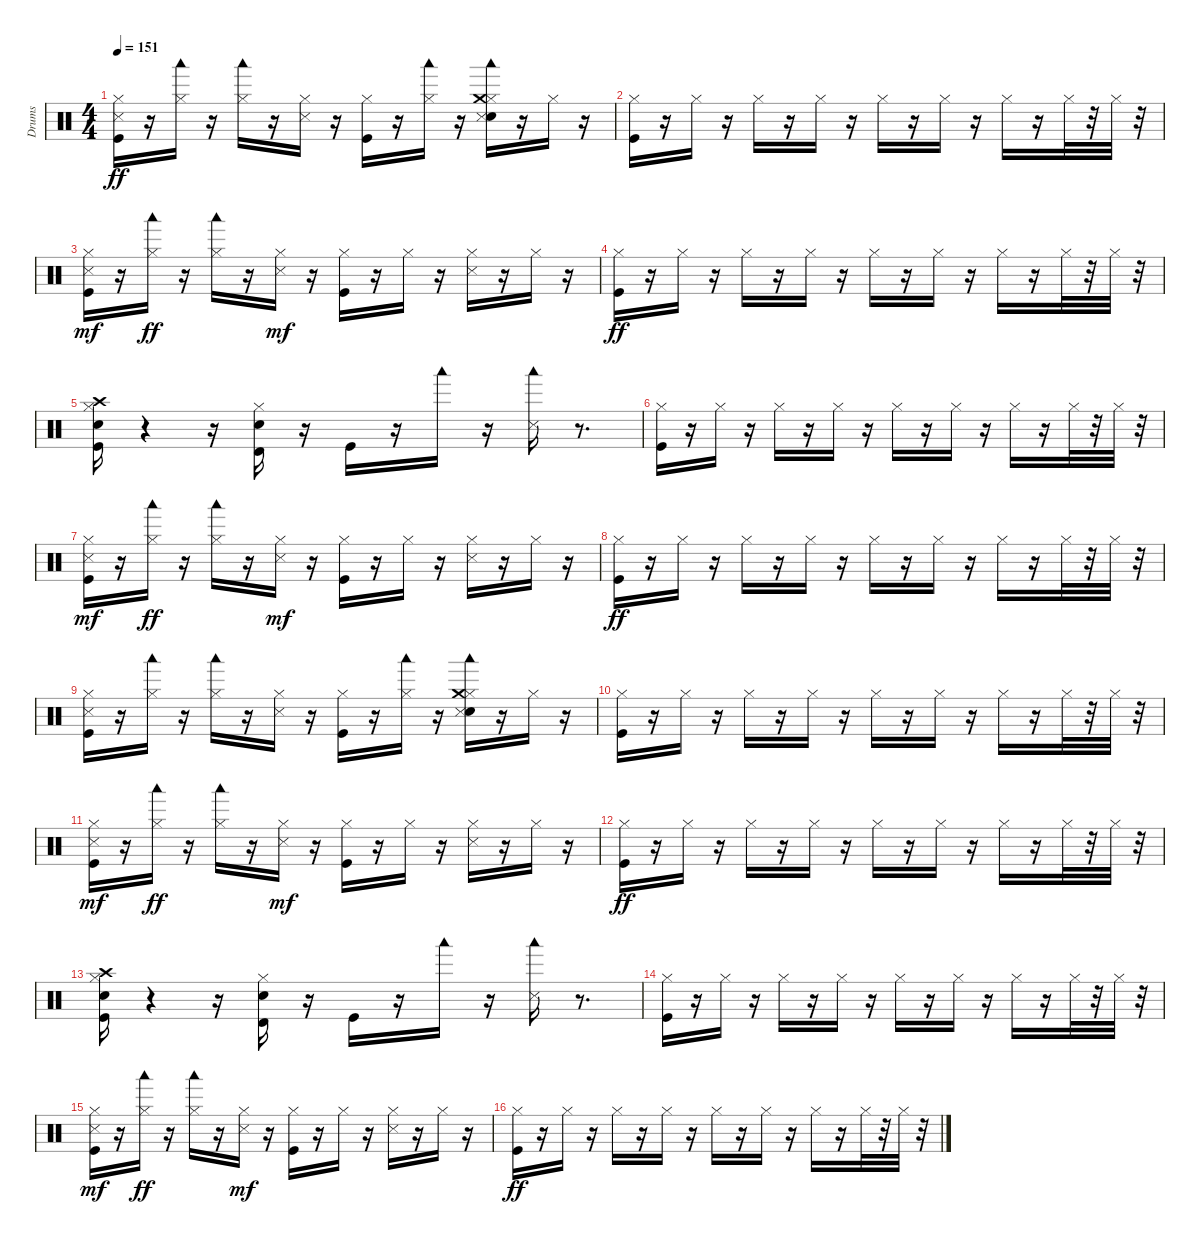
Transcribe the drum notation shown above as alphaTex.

\track ("Drums" "Drums") {instrument percussion}
\staff {score}
\articulation defaults
\ts (4 4)
\tempo 151
\clef neutral
\ks c
("Kick (hit)" "Snare (side stick) 3" "Hi-Hat (closed)").16{dy ff} r.16 ("Hi-Hat (closed)" "Woodblock low (hit)").16 r.16 ("Hi-Hat (closed)" "Woodblock low (hit)").16 r.16 ("Snare (side stick) 3" "Hi-Hat (closed)").16 r.16 ("Kick (hit)" "Hi-Hat (closed)").16 r.16 ("Hi-Hat (closed)" "Woodblock low (hit)").16 r.16 ("Snare (hit) 2" "Snare (side stick) 3" "Hi-Hat (closed)" "Crash medium (hit)" "Woodblock low (hit)").16 r.16 "Hi-Hat (closed)".16 r.16 |
("Kick (hit)" "Hi-Hat (closed)").16 r.16 "Hi-Hat (closed)".16 r.16 "Hi-Hat (closed)".16 r.16 "Hi-Hat (closed)".16 r.16 "Hi-Hat (closed)".16 r.16 "Hi-Hat (closed)".16 r.16 "Hi-Hat (closed)".16 r.16 "Hi-Hat (closed)".32 r.32 "Hi-Hat (closed)".32 r.32 |
("Kick (hit)" "Snare (side stick) 3" "Hi-Hat (closed)").16{dy mf} r.16 ("Hi-Hat (closed)" "Woodblock low (hit)").16{dy ff} r.16 ("Hi-Hat (closed)" "Woodblock low (hit)").16 r.16 ("Snare (side stick) 3" "Hi-Hat (closed)").16{dy mf} r.16 ("Kick (hit)" "Hi-Hat (closed)").16 r.16 "Hi-Hat (closed)".16 r.16 ("Snare (side stick) 3" "Hi-Hat (closed)").16 r.16 "Hi-Hat (closed)".16 r.16 |
("Kick (hit)" "Hi-Hat (closed)").16{dy ff} r.16 "Hi-Hat (closed)".16 r.16 "Hi-Hat (closed)".16 r.16 "Hi-Hat (closed)".16 r.16 "Hi-Hat (closed)".16 r.16 "Hi-Hat (closed)".16 r.16 "Hi-Hat (closed)".16 r.16 "Hi-Hat (closed)".32 r.32 "Hi-Hat (closed)".32 r.32 |
("Kick (hit)" "Snare (hit) 2" "Hi-Hat (closed)" "Crash high (hit)").16 r.4 r.16 ("Snare (hit) 2" "Hi-Hat (closed)" "Timbale high (hit)").16 r.16 "Kick (hit)".16 r.16 "Woodblock low (hit)".16 r.16 ("Snare (side stick) 3" "Woodblock low (hit)").16 r.8{d} |
("Kick (hit)" "Hi-Hat (closed)").16 r.16 "Hi-Hat (closed)".16 r.16 "Hi-Hat (closed)".16 r.16 "Hi-Hat (closed)".16 r.16 "Hi-Hat (closed)".16 r.16 "Hi-Hat (closed)".16 r.16 "Hi-Hat (closed)".16 r.16 "Hi-Hat (closed)".32 r.32 "Hi-Hat (closed)".32 r.32 |
("Kick (hit)" "Snare (side stick) 3" "Hi-Hat (closed)").16{dy mf} r.16 ("Hi-Hat (closed)" "Woodblock low (hit)").16{dy ff} r.16 ("Hi-Hat (closed)" "Woodblock low (hit)").16 r.16 ("Snare (side stick) 3" "Hi-Hat (closed)").16{dy mf} r.16 ("Kick (hit)" "Hi-Hat (closed)").16 r.16 "Hi-Hat (closed)".16 r.16 ("Snare (side stick) 3" "Hi-Hat (closed)").16 r.16 "Hi-Hat (closed)".16 r.16 |
("Kick (hit)" "Hi-Hat (closed)").16{dy ff} r.16 "Hi-Hat (closed)".16 r.16 "Hi-Hat (closed)".16 r.16 "Hi-Hat (closed)".16 r.16 "Hi-Hat (closed)".16 r.16 "Hi-Hat (closed)".16 r.16 "Hi-Hat (closed)".16 r.16 "Hi-Hat (closed)".32 r.32 "Hi-Hat (closed)".32 r.32 |
("Kick (hit)" "Snare (side stick) 3" "Hi-Hat (closed)").16 r.16 ("Hi-Hat (closed)" "Woodblock low (hit)").16 r.16 ("Hi-Hat (closed)" "Woodblock low (hit)").16 r.16 ("Snare (side stick) 3" "Hi-Hat (closed)").16 r.16 ("Kick (hit)" "Hi-Hat (closed)").16 r.16 ("Hi-Hat (closed)" "Woodblock low (hit)").16 r.16 ("Snare (hit) 2" "Snare (side stick) 3" "Hi-Hat (closed)" "Crash medium (hit)" "Woodblock low (hit)").16 r.16 "Hi-Hat (closed)".16 r.16 |
("Kick (hit)" "Hi-Hat (closed)").16 r.16 "Hi-Hat (closed)".16 r.16 "Hi-Hat (closed)".16 r.16 "Hi-Hat (closed)".16 r.16 "Hi-Hat (closed)".16 r.16 "Hi-Hat (closed)".16 r.16 "Hi-Hat (closed)".16 r.16 "Hi-Hat (closed)".32 r.32 "Hi-Hat (closed)".32 r.32 |
("Kick (hit)" "Snare (side stick) 3" "Hi-Hat (closed)").16{dy mf} r.16 ("Hi-Hat (closed)" "Woodblock low (hit)").16{dy ff} r.16 ("Hi-Hat (closed)" "Woodblock low (hit)").16 r.16 ("Snare (side stick) 3" "Hi-Hat (closed)").16{dy mf} r.16 ("Kick (hit)" "Hi-Hat (closed)").16 r.16 "Hi-Hat (closed)".16 r.16 ("Snare (side stick) 3" "Hi-Hat (closed)").16 r.16 "Hi-Hat (closed)".16 r.16 |
("Kick (hit)" "Hi-Hat (closed)").16{dy ff} r.16 "Hi-Hat (closed)".16 r.16 "Hi-Hat (closed)".16 r.16 "Hi-Hat (closed)".16 r.16 "Hi-Hat (closed)".16 r.16 "Hi-Hat (closed)".16 r.16 "Hi-Hat (closed)".16 r.16 "Hi-Hat (closed)".32 r.32 "Hi-Hat (closed)".32 r.32 |
("Kick (hit)" "Snare (hit) 2" "Hi-Hat (closed)" "Crash high (hit)").16 r.4 r.16 ("Snare (hit) 2" "Hi-Hat (closed)" "Timbale high (hit)").16 r.16 "Kick (hit)".16 r.16 "Woodblock low (hit)".16 r.16 ("Snare (side stick) 3" "Woodblock low (hit)").16 r.8{d} |
("Kick (hit)" "Hi-Hat (closed)").16 r.16 "Hi-Hat (closed)".16 r.16 "Hi-Hat (closed)".16 r.16 "Hi-Hat (closed)".16 r.16 "Hi-Hat (closed)".16 r.16 "Hi-Hat (closed)".16 r.16 "Hi-Hat (closed)".16 r.16 "Hi-Hat (closed)".32 r.32 "Hi-Hat (closed)".32 r.32 |
("Kick (hit)" "Snare (side stick) 3" "Hi-Hat (closed)").16{dy mf} r.16 ("Hi-Hat (closed)" "Woodblock low (hit)").16{dy ff} r.16 ("Hi-Hat (closed)" "Woodblock low (hit)").16 r.16 ("Snare (side stick) 3" "Hi-Hat (closed)").16{dy mf} r.16 ("Kick (hit)" "Hi-Hat (closed)").16 r.16 "Hi-Hat (closed)".16 r.16 ("Snare (side stick) 3" "Hi-Hat (closed)").16 r.16 "Hi-Hat (closed)".16 r.16 |
("Kick (hit)" "Hi-Hat (closed)").16{dy ff} r.16 "Hi-Hat (closed)".16 r.16 "Hi-Hat (closed)".16 r.16 "Hi-Hat (closed)".16 r.16 "Hi-Hat (closed)".16 r.16 "Hi-Hat (closed)".16 r.16 "Hi-Hat (closed)".16 r.16 "Hi-Hat (closed)".32 r.32 "Hi-Hat (closed)".32 r.32
